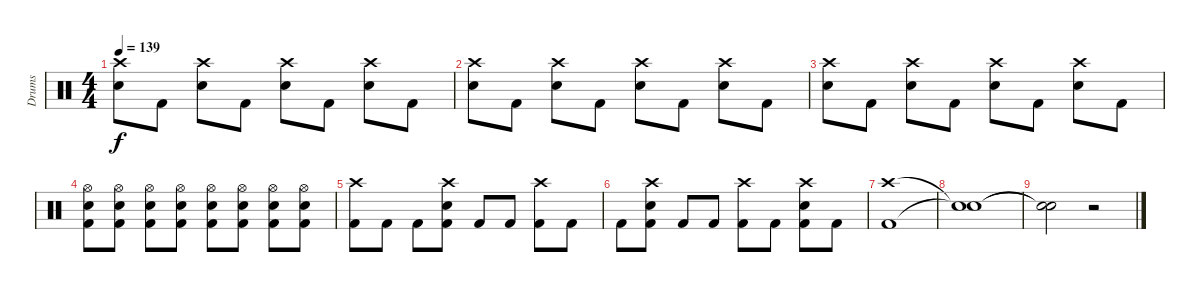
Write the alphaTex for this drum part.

\track ("Drums" "Drums") {instrument percussion}
\staff {score}
\articulation defaults
\ts (4 4)
\tempo 139
\clef neutral
\ks c
("Crash high (hit)" "Electric Snare (hit)").8{dy f} "Kick (hit) 2".8 ("Crash high (hit)" "Electric Snare (hit)").8 "Kick (hit) 2".8 ("Crash high (hit)" "Electric Snare (hit)").8 "Kick (hit) 2".8 ("Crash high (hit)" "Electric Snare (hit)").8 "Kick (hit) 2".8 |
("Crash high (hit)" "Electric Snare (hit)").8 "Kick (hit) 2".8 ("Crash high (hit)" "Electric Snare (hit)").8 "Kick (hit) 2".8 ("Crash high (hit)" "Electric Snare (hit)").8 "Kick (hit) 2".8 ("Crash high (hit)" "Electric Snare (hit)").8 "Kick (hit) 2".8 |
("Crash high (hit)" "Electric Snare (hit)").8 "Kick (hit) 2".8 ("Crash high (hit)" "Electric Snare (hit)").8 "Kick (hit) 2".8 ("Crash high (hit)" "Electric Snare (hit)").8 "Kick (hit) 2".8 ("Crash high (hit)" "Electric Snare (hit)").8 "Kick (hit) 2".8 |
("Hi-Hat (open)" "Electric Snare (hit)" "Kick (hit) 2").8 ("Hi-Hat (open)" "Electric Snare (hit)" "Kick (hit) 2").8 ("Hi-Hat (open)" "Electric Snare (hit)" "Kick (hit) 2").8 ("Hi-Hat (open)" "Electric Snare (hit)" "Kick (hit) 2").8 ("Hi-Hat (open)" "Electric Snare (hit)" "Kick (hit) 2").8 ("Hi-Hat (open)" "Electric Snare (hit)" "Kick (hit) 2").8 ("Hi-Hat (open)" "Electric Snare (hit)" "Kick (hit) 2").8 ("Hi-Hat (open)" "Electric Snare (hit)" "Kick (hit) 2").8 |
("Crash high (hit)" "Kick (hit) 2").8 "Kick (hit) 2".8 "Kick (hit) 2".8 ("Crash high (hit)" "Kick (hit) 2" "Electric Snare (hit)").8 "Kick (hit) 2".8 "Kick (hit) 2".8 ("Crash high (hit)" "Kick (hit) 2").8 "Kick (hit) 2".8 |
"Kick (hit) 2".8 ("Crash high (hit)" "Kick (hit) 2" "Electric Snare (hit)").8 "Kick (hit) 2".8 "Kick (hit) 2".8 ("Crash high (hit)" "Kick (hit) 2").8 "Kick (hit) 2".8 ("Crash high (hit)" "Kick (hit) 2" "Electric Snare (hit)").8 "Kick (hit) 2".8 |
("Crash high (hit)" "Kick (hit) 2").1 |
("Snare (hit)"{t} "Snare (hit)"{t}).1 |
("Snare (hit)"{t} "Snare (hit)"{t}).2 r.2
